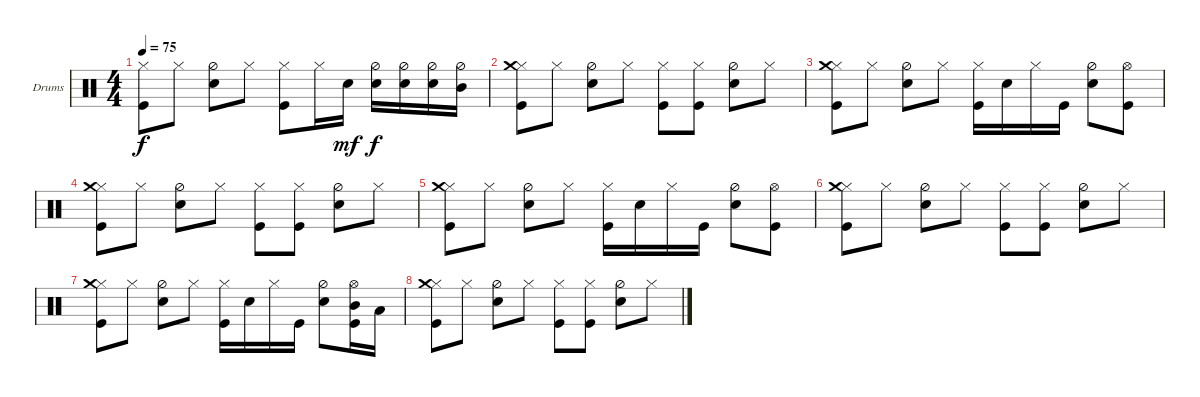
\defaultSystemsLayout 4
\bracketExtendMode groupsimilarinstruments
\firstSystemTrackNameOrientation horizontal
\otherSystemsTrackNameOrientation horizontal
\track ("Drumkit" "Drums") {instrument percussion}
\staff {score}
\articulation defaults
\ts (4 4)
\tempo 75
\clef neutral
\scale
0.474178
\ks c
("Hi-Hat (closed)" "Kick (hit)").8{dy f} "Hi-Hat (closed)".8 ("Snare (hit) 2" "Hi-Hat (half)").8 "Hi-Hat (closed)".8 ("Hi-Hat (closed)" "Kick (hit)").8 "Hi-Hat (closed)".16 "Snare (hit) 2".16{dy mf} ("Snare (hit) 2" "Hi-Hat (half)").16{dy f} ("Snare (hit) 2" "Hi-Hat (half)").16 ("Snare (hit) 2" "Hi-Hat (half)").16 ("Mid Tom (hit)" "Hi-Hat (half)").16 |
\scale
0.262911 ("Hi-Hat (closed)" "Kick (hit)" "Crash medium (hit)").8 "Hi-Hat (closed)".8 ("Snare (hit) 2" "Hi-Hat (half)").8 "Hi-Hat (closed)".8 ("Hi-Hat (closed)" "Kick (hit)").8 ("Hi-Hat (closed)" "Kick (hit)").8 ("Snare (hit) 2" "Hi-Hat (half)").8 "Hi-Hat (closed)".8 |
\scale
0.262911 ("Hi-Hat (closed)" "Kick (hit)" "Crash medium (hit)").8 "Hi-Hat (closed)".8 ("Snare (hit) 2" "Hi-Hat (half)").8 "Hi-Hat (closed)".8 ("Hi-Hat (closed)" "Kick (hit)").16 "Snare (hit) 2".16 "Hi-Hat (closed)".16 "Kick (hit)".16 ("Snare (hit) 2" "Hi-Hat (half)").8 ("Hi-Hat (open)" "Kick (hit)").8 |
\scale
0.333333 ("Hi-Hat (closed)" "Kick (hit)" "Crash medium (hit)").8 "Hi-Hat (closed)".8 ("Snare (hit) 2" "Hi-Hat (half)").8 "Hi-Hat (closed)".8 ("Hi-Hat (closed)" "Kick (hit)").8 ("Hi-Hat (closed)" "Kick (hit)").8 ("Snare (hit) 2" "Hi-Hat (half)").8 "Hi-Hat (closed)".8 |
\scale
0.333333 ("Hi-Hat (closed)" "Kick (hit)" "Crash medium (hit)").8 "Hi-Hat (closed)".8 ("Snare (hit) 2" "Hi-Hat (half)").8 "Hi-Hat (closed)".8 ("Hi-Hat (closed)" "Kick (hit)").16 "Snare (hit) 2".16 "Hi-Hat (closed)".16 "Kick (hit)".16 ("Snare (hit) 2" "Hi-Hat (half)").8 ("Hi-Hat (open)" "Kick (hit)").8 |
\scale
0.333333 ("Hi-Hat (closed)" "Kick (hit)" "Crash medium (hit)").8 "Hi-Hat (closed)".8 ("Snare (hit) 2" "Hi-Hat (half)").8 "Hi-Hat (closed)".8 ("Hi-Hat (closed)" "Kick (hit)").8 ("Hi-Hat (closed)" "Kick (hit)").8 ("Snare (hit) 2" "Hi-Hat (half)").8 "Hi-Hat (closed)".8 |
\scale
0.333333 ("Hi-Hat (closed)" "Kick (hit)" "Crash medium (hit)").8 "Hi-Hat (closed)".8 ("Snare (hit) 2" "Hi-Hat (half)").8 "Hi-Hat (closed)".8 ("Hi-Hat (closed)" "Kick (hit)").16 "Snare (hit) 2".16 "Hi-Hat (closed)".16 "Kick (hit)".16 ("Snare (hit) 2" "Hi-Hat (half)").8 ("Hi-Hat (open)" "Mid Tom (hit)" "Kick (hit)").16 "Low Tom (hit)".16 |
\scale
0.333333 ("Hi-Hat (closed)" "Kick (hit)" "Crash medium (hit)").8 "Hi-Hat (closed)".8 ("Snare (hit) 2" "Hi-Hat (half)").8 "Hi-Hat (closed)".8 ("Hi-Hat (closed)" "Kick (hit)").8 ("Hi-Hat (closed)" "Kick (hit)").8 ("Snare (hit) 2" "Hi-Hat (half)").8 "Hi-Hat (closed)".8 |
\scale
0.333333
